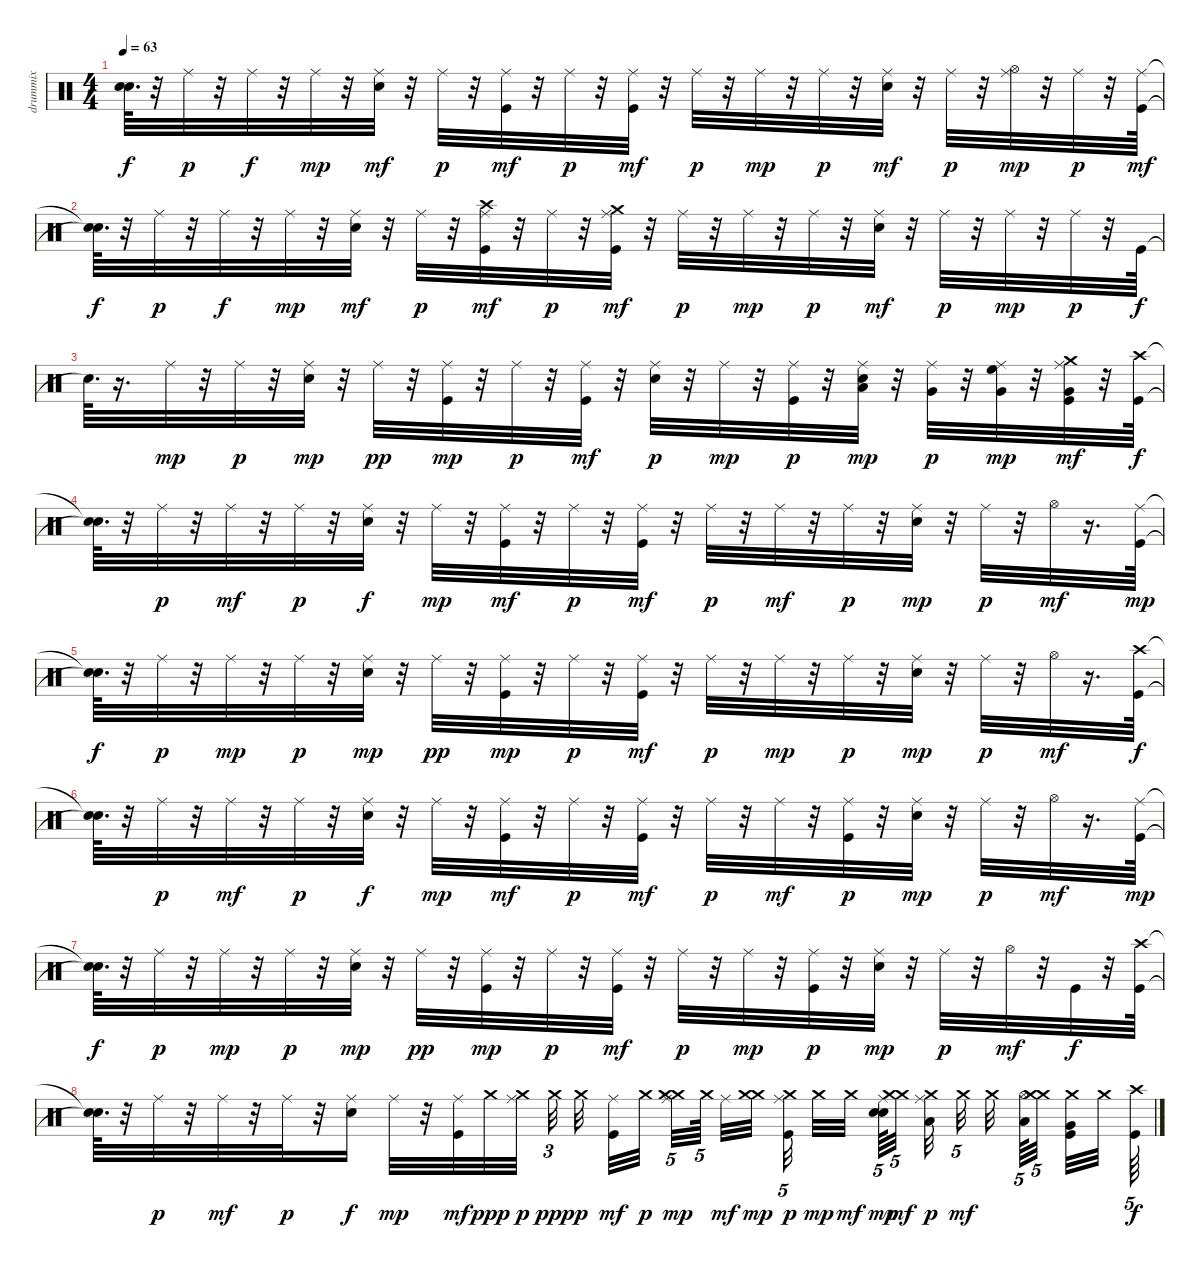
\track ("drummix" "drummix") {instrument percussion}
\staff {score}
\articulation defaults
\ts (4 4)
\tempo 63
\clef neutral
\ks c
("Snare (hit)"{t} "Snare (hit)"{t}).64{d dy f} r.32 "Ride (middle)".32{dy p} r.32 "Ride (middle)".32{dy f} r.32 "Ride (middle)".32{dy mp} r.32 ("Snare (hit) 2" "Ride (middle)").32{dy mf} r.32 "Ride (middle)".32{dy p} r.32 ("Kick (hit)" "Ride (middle)").32{dy mf} r.32 "Ride (middle)".32{dy p} r.32 ("Kick (hit)" "Ride (middle)").32{dy mf} r.32 "Ride (middle)".32{dy p} r.32 "Ride (middle)".32{dy mp} r.32 "Ride (middle)".32{dy p} r.32 ("Snare (hit) 2" "Ride (middle)").32{dy mf} r.32 "Ride (middle)".32{dy p} r.32 ("Hi-Hat (open)" "Ride (middle)").32{dy mp} r.32 "Ride (middle)".32{dy p} r.32 ("Kick (hit)" "Ride (middle)").64{dy mf} |
("Snare (hit)"{t} "Snare (hit)"{t}).64{d dy f} r.32 "Ride (middle)".32{dy p} r.32 "Ride (middle)".32{dy f} r.32 "Ride (middle)".32{dy mp} r.32 ("Snare (hit) 2" "Ride (middle)").32{dy mf} r.32 "Ride (middle)".32{dy p} r.32 ("Kick (hit)" "Crash high (hit)" "Ride (middle)").32{dy mf} r.32 "Ride (middle)".32{dy p} r.32 ("Kick (hit)" "Ride (middle)" "Crash medium (hit)").32{dy mf} r.32 "Ride (middle)".32{dy p} r.32 "Ride (middle)".32{dy mp} r.32 "Ride (middle)".32{dy p} r.32 ("Snare (hit) 2" "Ride (middle)").32{dy mf} r.32 "Ride (middle)".32{dy p} r.32 "Ride (middle)".32{dy mp} r.32 "Ride (middle)".32{dy p} r.32 "Kick (hit)".64{dy f} |
"Snare (hit)"{t}.64{d} r.16{d} "Ride (middle)".32{dy mp} r.32 "Ride (middle)".32{dy p} r.32 ("Snare (hit) 2" "Ride (middle)").32{dy mp} r.32 "Ride (middle)".32{dy pp} r.32 ("Kick (hit)" "Ride (middle)").32{dy mp} r.32 "Ride (middle)".32{dy p} r.32 ("Kick (hit)" "Ride (middle)").32{dy mf} r.32 ("Snare (hit) 2" "Ride (middle)").32{dy p} r.32 "Ride (middle)".32{dy mp} r.32 ("Kick (hit)" "Ride (middle)").32{dy p} r.32 ("Snare (hit) 2" "Low Tom (hit)" "Ride (middle)").32{dy mp} r.32 ("Very Low Tom (hit)" "Ride (middle)").32{dy p} r.32 ("Very Low Tom (hit)" "High Floor Tom (hit)" "Ride (middle)").32{dy mp} r.32 ("Kick (hit)" "Very Low Tom (hit)" "Ride (middle)" "Crash medium (hit)").32{dy mf} r.32 ("Kick (hit)" "Crash high (hit)").64{dy f} |
("Snare (hit)"{t} "Snare (hit)"{t}).64{d} r.32 "Ride (middle)".32{dy p} r.32 "Ride (middle)".32{dy mf} r.32 "Ride (middle)".32{dy p} r.32 ("Snare (hit) 2" "Ride (middle)").32{dy f} r.32 "Ride (middle)".32{dy mp} r.32 ("Kick (hit)" "Ride (middle)").32{dy mf} r.32 "Ride (middle)".32{dy p} r.32 ("Kick (hit)" "Ride (middle)").32{dy mf} r.32 "Ride (middle)".32{dy p} r.32 "Ride (middle)".32{dy mf} r.32 "Ride (middle)".32{dy p} r.32 ("Snare (hit) 2" "Ride (middle)").32{dy mp} r.32 "Ride (middle)".32{dy p} r.32 "Hi-Hat (open)".32{dy mf} r.16{d} ("Kick (hit)" "Ride (middle)").64{dy mp} |
("Snare (hit)"{t} "Snare (hit)"{t}).64{d dy f} r.32 "Ride (middle)".32{dy p} r.32 "Ride (middle)".32{dy mp} r.32 "Ride (middle)".32{dy p} r.32 ("Snare (hit) 2" "Ride (middle)").32{dy mp} r.32 "Ride (middle)".32{dy pp} r.32 ("Kick (hit)" "Ride (middle)").32{dy mp} r.32 "Ride (middle)".32{dy p} r.32 ("Kick (hit)" "Ride (middle)").32{dy mf} r.32 "Ride (middle)".32{dy p} r.32 "Ride (middle)".32{dy mp} r.32 "Ride (middle)".32{dy p} r.32 ("Snare (hit) 2" "Ride (middle)").32{dy mp} r.32 "Ride (middle)".32{dy p} r.32 "Hi-Hat (open)".32{dy mf} r.16{d} ("Kick (hit)" "Crash high (hit)").64{dy f} |
("Snare (hit)"{t} "Snare (hit)"{t}).64{d} r.32 "Ride (middle)".32{dy p} r.32 "Ride (middle)".32{dy mf} r.32 "Ride (middle)".32{dy p} r.32 ("Snare (hit) 2" "Ride (middle)").32{dy f} r.32 "Ride (middle)".32{dy mp} r.32 ("Kick (hit)" "Ride (middle)").32{dy mf} r.32 "Ride (middle)".32{dy p} r.32 ("Kick (hit)" "Ride (middle)").32{dy mf} r.32 "Ride (middle)".32{dy p} r.32 "Ride (middle)".32{dy mf} r.32 ("Kick (hit)" "Ride (middle)").32{dy p} r.32 ("Snare (hit) 2" "Ride (middle)").32{dy mp} r.32 "Ride (middle)".32{dy p} r.32 "Hi-Hat (open)".32{dy mf} r.16{d} ("Kick (hit)" "Ride (middle)").64{dy mp} |
("Snare (hit)"{t} "Snare (hit)"{t}).64{d dy f} r.32 "Ride (middle)".32{dy p} r.32 "Ride (middle)".32{dy mp} r.32 "Ride (middle)".32{dy p} r.32 ("Snare (hit) 2" "Ride (middle)").32{dy mp} r.32 "Ride (middle)".32{dy pp} r.32 ("Kick (hit)" "Ride (middle)").32{dy mp} r.32 "Ride (middle)".32{dy p} r.32 ("Kick (hit)" "Ride (middle)").32{dy mf} r.32 "Ride (middle)".32{dy p} r.32 "Ride (middle)".32{dy mp} r.32 ("Kick (hit)" "Ride (middle)").32{dy p} r.32 ("Snare (hit) 2" "Ride (middle)").32{dy mp} r.32 "Ride (middle)".32{dy p} r.32 "Hi-Hat (open)".32{dy mf} r.32 "Kick (hit)".32{dy f} r.32 ("Kick (hit)" "Crash high (hit)").64 |
("Snare (hit)"{t} "Snare (hit)"{t}).64{d} r.32 "Ride (middle)".32{dy p} r.32 "Ride (middle)".32{dy mf} r.32 "Ride (middle)".32{dy p} r.32 ("Snare (hit) 2" "Ride (middle)").16{dy f} "Ride (middle)".32{dy mp} r.32 ("Kick (hit)" "Ride (middle)").32{dy mf} "Crash medium (hit)".32{dy ppp} ("Crash medium (hit)" "Ride (middle)").32{dy p beam splitsecondary} "Crash medium (hit)".32{tu (3 2) dy ppp} "Crash medium (hit)".32{dy p} ("Kick (hit)" "Ride (middle)").32{dy mf} "Crash medium (hit)".32{dy p beam splitsecondary} ("Ride (middle)" "Crash medium (hit)" "Crash medium (hit)").32{tu (5 4) dy mp} "Crash medium (hit)".64{tu (5 4) beam splitsecondary} "Ride (middle)".32{dy mf} ("Crash medium (hit)" "Crash medium (hit)").32{dy mp beam splitsecondary} ("Crash medium (hit)" "Kick (hit)" "Ride (middle)").32{tu (5 4) dy p beam splitsecondary} "Crash medium (hit)".32{dy mp} "Crash medium (hit)".32{dy mf} ("Snare (hit) 2" "Snare (hit) 2" "Ride (middle)").64{tu (5 4) dy mp} ("Crash medium (hit)" "Crash medium (hit)").32{tu (5 4) dy mf beam splitsecondary} ("Crash medium (hit)" "Low Tom (hit)" "Ride (middle)").32{dy p beam splitsecondary} "Crash medium (hit)".32{tu (5 4) dy mf beam splitsecondary} "Crash medium (hit)".32{beam splitsecondary} ("Low Tom (hit)" "Hi-Hat (open)").64{tu (5 4)} ("Crash medium (hit)" "Crash medium (hit)").32{tu (5 4) beam splitsecondary} ("Crash medium (hit)" "Kick (hit)" "Very Low Tom (hit)").32 "Crash medium (hit)".32{beam splitsecondary} ("Kick (hit)" "Crash high (hit)").64{tu (5 4) dy f}
